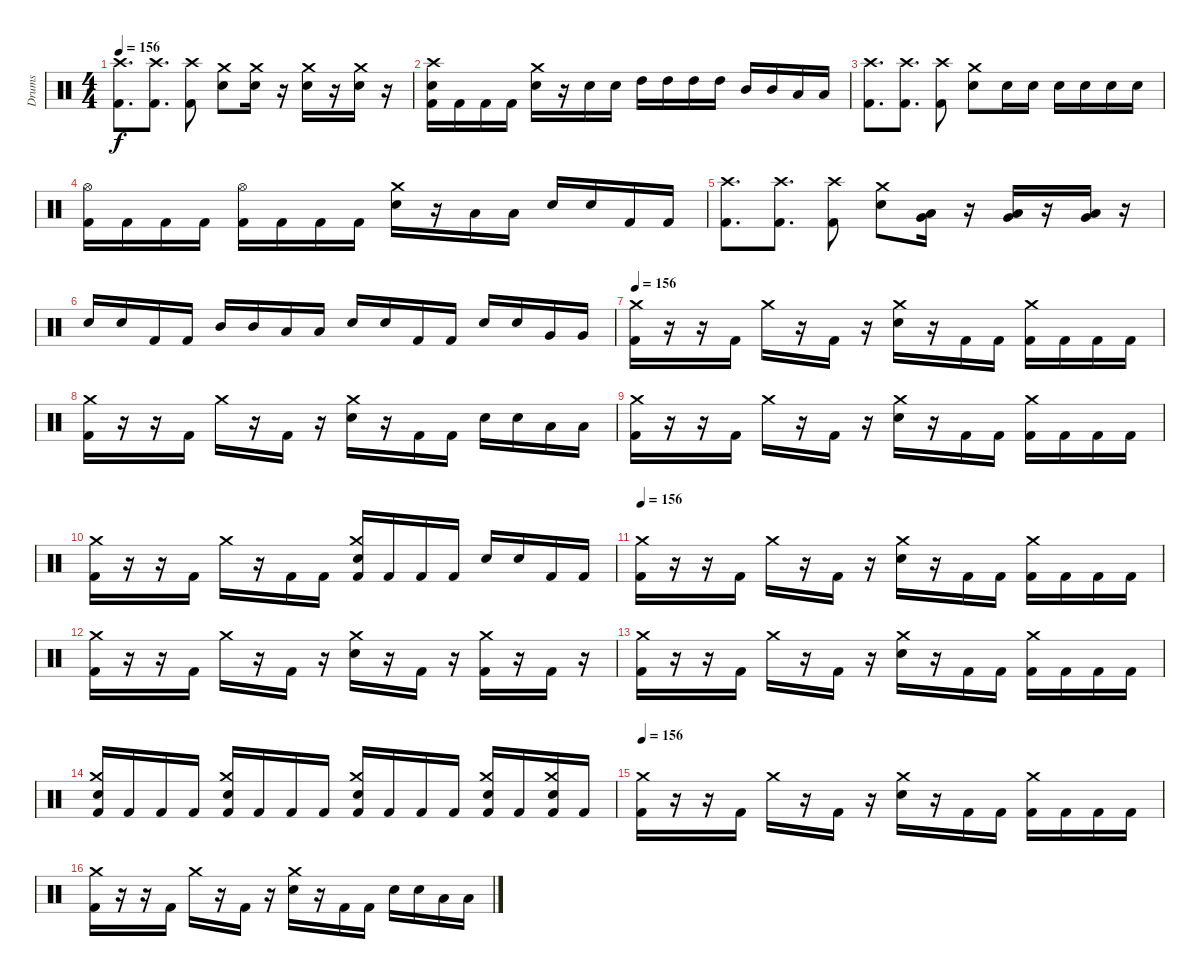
\track ("Drums" "Drums") {instrument percussion}
\staff {score}
\articulation defaults
\ts (4 4)
\tempo 156
\clef neutral
\ks c
("Crash high (hit)" "Kick (hit) 2").8{d dy f} ("Crash high (hit)" "Kick (hit) 2").8{d} ("Crash high (hit)" "Kick (hit) 2").8 ("Crash medium (hit)" "Snare (hit) 2").8 ("Crash medium (hit)" "Snare (hit) 2").16 r.16 ("Crash medium (hit)" "Snare (hit) 2").16 r.16 ("Crash medium (hit)" "Snare (hit) 2").16 r.16 |
("Crash high (hit)" "Snare (hit) 2" "Kick (hit) 2").16 "Kick (hit) 2".16 "Kick (hit) 2".16 "Kick (hit) 2".16 ("Crash medium (hit)" "Snare (hit) 2").16 r.16 "Snare (hit) 2".16 "Snare (hit) 2".16 "High Tom (hit)".16 "High Tom (hit)".16 "High Tom (hit)".16 "High Tom (hit)".16 "Mid Tom (hit)".16 "Mid Tom (hit)".16 "Low Tom (hit)".16 "Low Tom (hit)".16 |
("Crash high (hit)" "Kick (hit) 2").8{d} ("Crash high (hit)" "Kick (hit) 2").8{d} ("Crash high (hit)" "Kick (hit) 2").8 ("Crash medium (hit)" "Snare (hit) 2").8 "Snare (hit) 2".16 "Snare (hit) 2".16 "Snare (hit) 2".16 "Snare (hit) 2".16 "Snare (hit) 2".16 "Snare (hit) 2".16 |
("Hi-Hat (open)" "Kick (hit) 2").16 "Kick (hit) 2".16 "Kick (hit) 2".16 "Kick (hit) 2".16 ("Hi-Hat (open)" "Kick (hit) 2").16 "Kick (hit) 2".16 "Kick (hit) 2".16 "Kick (hit) 2".16 ("Crash medium (hit)" "Snare (hit) 2").16 r.16 "Low Tom (hit)".16 "Low Tom (hit)".16 "Snare (hit) 2".16 "Snare (hit) 2".16 "Kick (hit) 2".16 "Kick (hit) 2".16 |
("Crash high (hit)" "Kick (hit) 2").8{d} ("Crash high (hit)" "Kick (hit) 2").8{d} ("Crash high (hit)" "Kick (hit) 2").8 ("Crash medium (hit)" "Snare (hit) 2").8 ("Low Floor Tom (hit)" "Very Low Tom (hit)").16 r.16 ("Low Floor Tom (hit)" "Very Low Tom (hit)").16 r.16 ("Low Floor Tom (hit)" "Very Low Tom (hit)").16 r.16 |
"Snare (hit) 2".16 "Snare (hit) 2".16 "Kick (hit) 2".16 "Kick (hit) 2".16 "Mid Tom (hit)".16 "Mid Tom (hit)".16 "Low Tom (hit)".16 "Low Tom (hit)".16 "Snare (hit) 2".16 "Snare (hit) 2".16 "Kick (hit) 2".16 "Kick (hit) 2".16 "Snare (hit) 2".16 "Snare (hit) 2".16 "Very Low Tom (hit)".16 "Very Low Tom (hit)".16 |
\tempo 156
("Crash medium (hit)" "Kick (hit) 2").16 r.16 r.16 "Kick (hit) 2".16 "Crash medium (hit)".16 r.16 "Kick (hit) 2".16 r.16 ("Crash medium (hit)" "Snare (hit) 2").16 r.16 "Kick (hit) 2".16 "Kick (hit) 2".16 ("Crash medium (hit)" "Kick (hit) 2").16 "Kick (hit) 2".16 "Kick (hit) 2".16 "Kick (hit) 2".16 |
("Crash medium (hit)" "Kick (hit) 2").16 r.16 r.16 "Kick (hit) 2".16 "Crash medium (hit)".16 r.16 "Kick (hit) 2".16 r.16 ("Crash medium (hit)" "Snare (hit) 2").16 r.16 "Kick (hit) 2".16 "Kick (hit) 2".16 "Snare (hit) 2".16 "Snare (hit) 2".16 "Low Tom (hit)".16 "Low Tom (hit)".16 |
("Crash medium (hit)" "Kick (hit) 2").16 r.16 r.16 "Kick (hit) 2".16 "Crash medium (hit)".16 r.16 "Kick (hit) 2".16 r.16 ("Crash medium (hit)" "Snare (hit) 2").16 r.16 "Kick (hit) 2".16 "Kick (hit) 2".16 ("Crash medium (hit)" "Kick (hit) 2").16 "Kick (hit) 2".16 "Kick (hit) 2".16 "Kick (hit) 2".16 |
("Crash medium (hit)" "Kick (hit) 2").16 r.16 r.16 "Kick (hit) 2".16 "Crash medium (hit)".16 r.16 "Kick (hit) 2".16 "Kick (hit) 2".16 ("Crash medium (hit)" "Snare (hit) 2" "Kick (hit) 2").16 "Kick (hit) 2".16 "Kick (hit) 2".16 "Kick (hit) 2".16 "Snare (hit) 2".16 "Snare (hit) 2".16 "Kick (hit) 2".16 "Kick (hit) 2".16 |
\tempo 156
("Crash medium (hit)" "Kick (hit) 2").16 r.16 r.16 "Kick (hit) 2".16 "Crash medium (hit)".16 r.16 "Kick (hit) 2".16 r.16 ("Crash medium (hit)" "Snare (hit) 2").16 r.16 "Kick (hit) 2".16 "Kick (hit) 2".16 ("Crash medium (hit)" "Kick (hit) 2").16 "Kick (hit) 2".16 "Kick (hit) 2".16 "Kick (hit) 2".16 |
("Crash medium (hit)" "Kick (hit) 2").16 r.16 r.16 "Kick (hit) 2".16 "Crash medium (hit)".16 r.16 "Kick (hit) 2".16 r.16 ("Crash medium (hit)" "Snare (hit) 2").16 r.16 "Kick (hit) 2".16 r.16 ("Crash medium (hit)" "Kick (hit) 2").16 r.16 "Kick (hit) 2".16 r.16 |
("Crash medium (hit)" "Kick (hit) 2").16 r.16 r.16 "Kick (hit) 2".16 "Crash medium (hit)".16 r.16 "Kick (hit) 2".16 r.16 ("Crash medium (hit)" "Snare (hit) 2").16 r.16 "Kick (hit) 2".16 "Kick (hit) 2".16 ("Crash medium (hit)" "Kick (hit) 2").16 "Kick (hit) 2".16 "Kick (hit) 2".16 "Kick (hit) 2".16 |
("Crash medium (hit)" "Snare (hit) 2" "Kick (hit) 2").16 "Kick (hit) 2".16 "Kick (hit) 2".16 "Kick (hit) 2".16 ("Crash medium (hit)" "Snare (hit) 2" "Kick (hit) 2").16 "Kick (hit) 2".16 "Kick (hit) 2".16 "Kick (hit) 2".16 ("Crash medium (hit)" "Snare (hit) 2" "Kick (hit) 2").16 "Kick (hit) 2".16 "Kick (hit) 2".16 "Kick (hit) 2".16 ("Crash medium (hit)" "Snare (hit) 2" "Kick (hit) 2").16 "Kick (hit) 2".16 ("Crash medium (hit)" "Snare (hit) 2" "Kick (hit) 2").16 "Kick (hit) 2".16 |
\tempo 156
("Crash medium (hit)" "Kick (hit) 2").16 r.16 r.16 "Kick (hit) 2".16 "Crash medium (hit)".16 r.16 "Kick (hit) 2".16 r.16 ("Crash medium (hit)" "Snare (hit) 2").16 r.16 "Kick (hit) 2".16 "Kick (hit) 2".16 ("Crash medium (hit)" "Kick (hit) 2").16 "Kick (hit) 2".16 "Kick (hit) 2".16 "Kick (hit) 2".16 |
("Crash medium (hit)" "Kick (hit) 2").16 r.16 r.16 "Kick (hit) 2".16 "Crash medium (hit)".16 r.16 "Kick (hit) 2".16 r.16 ("Crash medium (hit)" "Snare (hit) 2").16 r.16 "Kick (hit) 2".16 "Kick (hit) 2".16 "Snare (hit) 2".16 "Snare (hit) 2".16 "Low Tom (hit)".16 "Low Tom (hit)".16
